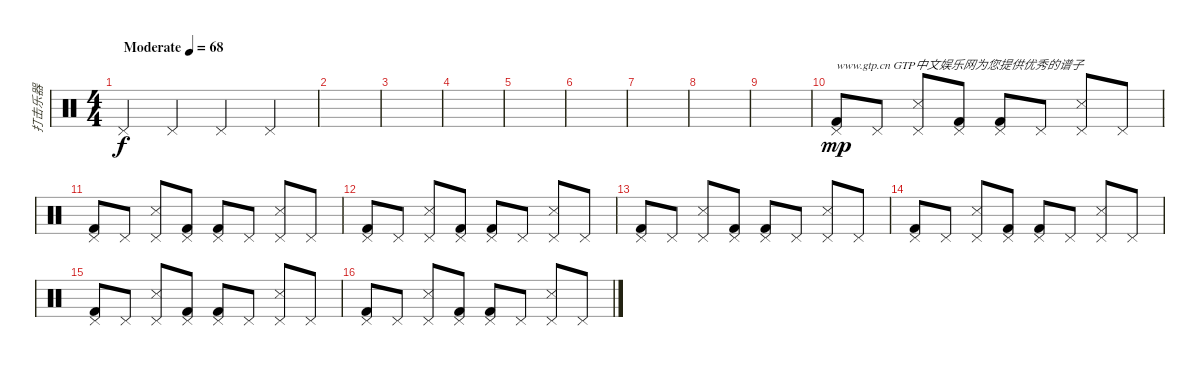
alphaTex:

\track ("打击乐器" "打击乐器") {instrument percussion}
\staff {score}
\articulation defaults
\ts (4 4)
\tempo (68 "Moderate")
\clef neutral
\ks c "Pedal Hi-Hat (hit)".4{dy f} "Pedal Hi-Hat (hit)".4 "Pedal Hi-Hat (hit)".4 "Pedal Hi-Hat (hit)".4
|
|
|
|
|
|
|
|
|
("Pedal Hi-Hat (hit)" "Kick (hit) 2").8{txt "www.gtp.cn GTP中文娱乐网为您提供优秀的谱子" dy mp} "Pedal Hi-Hat (hit)".8 ("Pedal Hi-Hat (hit)" "Snare (side stick) 3").8 ("Pedal Hi-Hat (hit)" "Kick (hit) 2").8 ("Pedal Hi-Hat (hit)" "Kick (hit) 2").8 "Pedal Hi-Hat (hit)".8 ("Pedal Hi-Hat (hit)" "Snare (side stick) 3").8 "Pedal Hi-Hat (hit)".8 |
("Pedal Hi-Hat (hit)" "Kick (hit) 2").8 "Pedal Hi-Hat (hit)".8 ("Pedal Hi-Hat (hit)" "Snare (side stick) 3").8 ("Pedal Hi-Hat (hit)" "Kick (hit) 2").8 ("Pedal Hi-Hat (hit)" "Kick (hit) 2").8 "Pedal Hi-Hat (hit)".8 ("Pedal Hi-Hat (hit)" "Snare (side stick) 3").8 "Pedal Hi-Hat (hit)".8 |
("Pedal Hi-Hat (hit)" "Kick (hit) 2").8 "Pedal Hi-Hat (hit)".8 ("Pedal Hi-Hat (hit)" "Snare (side stick) 3").8 ("Pedal Hi-Hat (hit)" "Kick (hit) 2").8 ("Pedal Hi-Hat (hit)" "Kick (hit) 2").8 "Pedal Hi-Hat (hit)".8 ("Pedal Hi-Hat (hit)" "Snare (side stick) 3").8 "Pedal Hi-Hat (hit)".8 |
("Pedal Hi-Hat (hit)" "Kick (hit) 2").8 "Pedal Hi-Hat (hit)".8 ("Pedal Hi-Hat (hit)" "Snare (side stick) 3").8 ("Pedal Hi-Hat (hit)" "Kick (hit) 2").8 ("Pedal Hi-Hat (hit)" "Kick (hit) 2").8 "Pedal Hi-Hat (hit)".8 ("Pedal Hi-Hat (hit)" "Snare (side stick) 3").8 "Pedal Hi-Hat (hit)".8 |
("Pedal Hi-Hat (hit)" "Kick (hit) 2").8 "Pedal Hi-Hat (hit)".8 ("Pedal Hi-Hat (hit)" "Snare (side stick) 3").8 ("Pedal Hi-Hat (hit)" "Kick (hit) 2").8 ("Pedal Hi-Hat (hit)" "Kick (hit) 2").8 "Pedal Hi-Hat (hit)".8 ("Pedal Hi-Hat (hit)" "Snare (side stick) 3").8 "Pedal Hi-Hat (hit)".8 |
("Pedal Hi-Hat (hit)" "Kick (hit) 2").8 "Pedal Hi-Hat (hit)".8 ("Pedal Hi-Hat (hit)" "Snare (side stick) 3").8 ("Pedal Hi-Hat (hit)" "Kick (hit) 2").8 ("Pedal Hi-Hat (hit)" "Kick (hit) 2").8 "Pedal Hi-Hat (hit)".8 ("Pedal Hi-Hat (hit)" "Snare (side stick) 3").8 "Pedal Hi-Hat (hit)".8 |
("Pedal Hi-Hat (hit)" "Kick (hit) 2").8 "Pedal Hi-Hat (hit)".8 ("Pedal Hi-Hat (hit)" "Snare (side stick) 3").8 ("Pedal Hi-Hat (hit)" "Kick (hit) 2").8 ("Pedal Hi-Hat (hit)" "Kick (hit) 2").8 "Pedal Hi-Hat (hit)".8 ("Pedal Hi-Hat (hit)" "Snare (side stick) 3").8 "Pedal Hi-Hat (hit)".8
